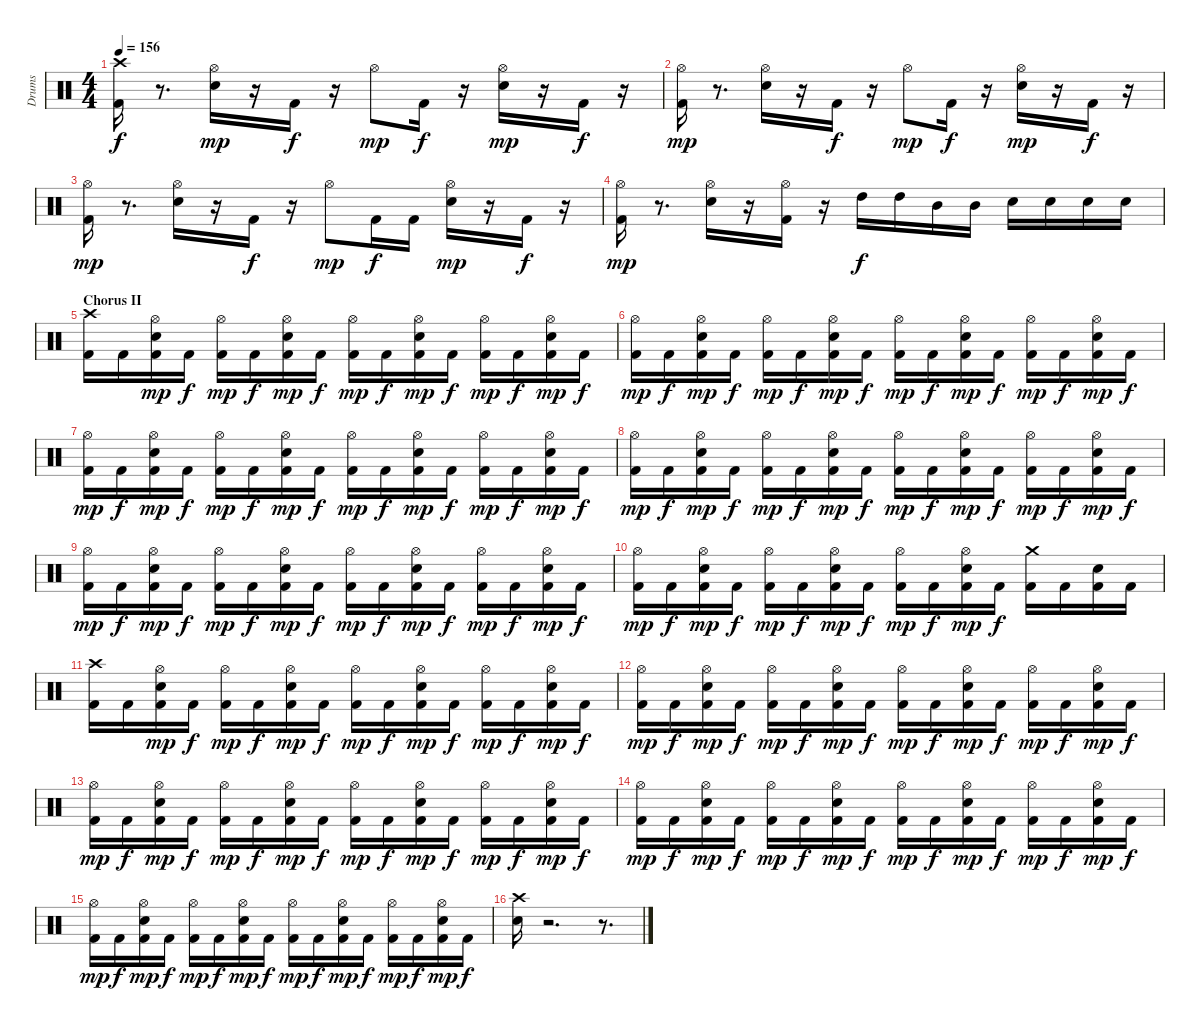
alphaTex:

\track ("Drums" "Drums") {instrument percussion}
\staff {score}
\articulation defaults
\ts (4 4)
\tempo 156
\clef neutral
\ks c
("Kick (hit) 2" "Crash high (hit)").16{dy f} r.8{d} ("Snare (hit) 2" "Hi-Hat (open)").16{dy mp} r.16 "Kick (hit) 2".16{dy f} r.16 "Hi-Hat (open)".8{dy mp} "Kick (hit) 2".16{dy f} r.16 ("Snare (hit) 2" "Hi-Hat (open)").16{dy mp} r.16 "Kick (hit) 2".16{dy f} r.16 |
("Kick (hit) 2" "Hi-Hat (open)").16{dy mp} r.8{d} ("Snare (hit) 2" "Hi-Hat (open)").16 r.16 "Kick (hit) 2".16{dy f} r.16 "Hi-Hat (open)".8{dy mp} "Kick (hit) 2".16{dy f} r.16 ("Snare (hit) 2" "Hi-Hat (open)").16{dy mp} r.16 "Kick (hit) 2".16{dy f} r.16 |
("Kick (hit) 2" "Hi-Hat (open)").16{dy mp} r.8{d} ("Snare (hit) 2" "Hi-Hat (open)").16 r.16 "Kick (hit) 2".16{dy f} r.16 "Hi-Hat (open)".8{dy mp} "Kick (hit) 2".16{dy f} "Kick (hit) 2".16 ("Snare (hit) 2" "Hi-Hat (open)").16{dy mp} r.16 "Kick (hit) 2".16{dy f} r.16 |
("Kick (hit) 2" "Hi-Hat (open)").16{dy mp} r.8{d} ("Snare (hit) 2" "Hi-Hat (open)").16 r.16 ("Kick (hit) 2" "Hi-Hat (open)").16 r.16 "High Tom (hit)".16{dy f} "High Tom (hit)".16 "Mid Tom (hit)".16 "Mid Tom (hit)".16 "Snare (hit) 2".16 "Snare (hit) 2".16 "Snare (hit) 2".16 "Snare (hit) 2".16 |
\section ("" "Chorus II")
("Kick (hit) 2" "Crash high (hit)").16 "Kick (hit) 2".16 ("Snare (hit) 2" "Kick (hit) 2" "Hi-Hat (open)").16{dy mp} "Kick (hit) 2".16{dy f} ("Kick (hit) 2" "Hi-Hat (open)").16{dy mp} "Kick (hit) 2".16{dy f} ("Snare (hit) 2" "Kick (hit) 2" "Hi-Hat (open)").16{dy mp} "Kick (hit) 2".16{dy f} ("Kick (hit) 2" "Hi-Hat (open)").16{dy mp} "Kick (hit) 2".16{dy f} ("Snare (hit) 2" "Kick (hit) 2" "Hi-Hat (open)").16{dy mp} "Kick (hit) 2".16{dy f} ("Kick (hit) 2" "Hi-Hat (open)").16{dy mp} "Kick (hit) 2".16{dy f} ("Snare (hit) 2" "Kick (hit) 2" "Hi-Hat (open)").16{dy mp} "Kick (hit) 2".16{dy f} |
("Kick (hit) 2" "Hi-Hat (open)").16{dy mp} "Kick (hit) 2".16{dy f} ("Snare (hit) 2" "Kick (hit) 2" "Hi-Hat (open)").16{dy mp} "Kick (hit) 2".16{dy f} ("Kick (hit) 2" "Hi-Hat (open)").16{dy mp} "Kick (hit) 2".16{dy f} ("Snare (hit) 2" "Kick (hit) 2" "Hi-Hat (open)").16{dy mp} "Kick (hit) 2".16{dy f} ("Kick (hit) 2" "Hi-Hat (open)").16{dy mp} "Kick (hit) 2".16{dy f} ("Snare (hit) 2" "Kick (hit) 2" "Hi-Hat (open)").16{dy mp} "Kick (hit) 2".16{dy f} ("Kick (hit) 2" "Hi-Hat (open)").16{dy mp} "Kick (hit) 2".16{dy f} ("Snare (hit) 2" "Kick (hit) 2" "Hi-Hat (open)").16{dy mp} "Kick (hit) 2".16{dy f} |
("Kick (hit) 2" "Hi-Hat (open)").16{dy mp} "Kick (hit) 2".16{dy f} ("Snare (hit) 2" "Kick (hit) 2" "Hi-Hat (open)").16{dy mp} "Kick (hit) 2".16{dy f} ("Kick (hit) 2" "Hi-Hat (open)").16{dy mp} "Kick (hit) 2".16{dy f} ("Snare (hit) 2" "Kick (hit) 2" "Hi-Hat (open)").16{dy mp} "Kick (hit) 2".16{dy f} ("Kick (hit) 2" "Hi-Hat (open)").16{dy mp} "Kick (hit) 2".16{dy f} ("Snare (hit) 2" "Kick (hit) 2" "Hi-Hat (open)").16{dy mp} "Kick (hit) 2".16{dy f} ("Kick (hit) 2" "Hi-Hat (open)").16{dy mp} "Kick (hit) 2".16{dy f} ("Snare (hit) 2" "Kick (hit) 2" "Hi-Hat (open)").16{dy mp} "Kick (hit) 2".16{dy f} |
("Kick (hit) 2" "Hi-Hat (open)").16{dy mp} "Kick (hit) 2".16{dy f} ("Snare (hit) 2" "Kick (hit) 2" "Hi-Hat (open)").16{dy mp} "Kick (hit) 2".16{dy f} ("Kick (hit) 2" "Hi-Hat (open)").16{dy mp} "Kick (hit) 2".16{dy f} ("Snare (hit) 2" "Kick (hit) 2" "Hi-Hat (open)").16{dy mp} "Kick (hit) 2".16{dy f} ("Kick (hit) 2" "Hi-Hat (open)").16{dy mp} "Kick (hit) 2".16{dy f} ("Snare (hit) 2" "Kick (hit) 2" "Hi-Hat (open)").16{dy mp} "Kick (hit) 2".16{dy f} ("Kick (hit) 2" "Hi-Hat (open)").16{dy mp} "Kick (hit) 2".16{dy f} ("Snare (hit) 2" "Kick (hit) 2" "Hi-Hat (open)").16{dy mp} "Kick (hit) 2".16{dy f} |
("Kick (hit) 2" "Hi-Hat (open)").16{dy mp} "Kick (hit) 2".16{dy f} ("Snare (hit) 2" "Kick (hit) 2" "Hi-Hat (open)").16{dy mp} "Kick (hit) 2".16{dy f} ("Kick (hit) 2" "Hi-Hat (open)").16{dy mp} "Kick (hit) 2".16{dy f} ("Snare (hit) 2" "Kick (hit) 2" "Hi-Hat (open)").16{dy mp} "Kick (hit) 2".16{dy f} ("Kick (hit) 2" "Hi-Hat (open)").16{dy mp} "Kick (hit) 2".16{dy f} ("Snare (hit) 2" "Kick (hit) 2" "Hi-Hat (open)").16{dy mp} "Kick (hit) 2".16{dy f} ("Kick (hit) 2" "Hi-Hat (open)").16{dy mp} "Kick (hit) 2".16{dy f} ("Snare (hit) 2" "Kick (hit) 2" "Hi-Hat (open)").16{dy mp} "Kick (hit) 2".16{dy f} |
("Kick (hit) 2" "Hi-Hat (open)").16{dy mp} "Kick (hit) 2".16{dy f} ("Snare (hit) 2" "Kick (hit) 2" "Hi-Hat (open)").16{dy mp} "Kick (hit) 2".16{dy f} ("Kick (hit) 2" "Hi-Hat (open)").16{dy mp} "Kick (hit) 2".16{dy f} ("Snare (hit) 2" "Kick (hit) 2" "Hi-Hat (open)").16{dy mp} "Kick (hit) 2".16{dy f} ("Kick (hit) 2" "Hi-Hat (open)").16{dy mp} "Kick (hit) 2".16{dy f} ("Snare (hit) 2" "Kick (hit) 2" "Hi-Hat (open)").16{dy mp} "Kick (hit) 2".16{dy f} ("Kick (hit) 2" "Crash medium (hit)").16 "Kick (hit) 2".16 ("Snare (hit) 2" "Kick (hit) 2").16 "Kick (hit) 2".16 |
("Kick (hit) 2" "Crash high (hit)").16 "Kick (hit) 2".16 ("Snare (hit) 2" "Kick (hit) 2" "Hi-Hat (open)").16{dy mp} "Kick (hit) 2".16{dy f} ("Kick (hit) 2" "Hi-Hat (open)").16{dy mp} "Kick (hit) 2".16{dy f} ("Snare (hit) 2" "Kick (hit) 2" "Hi-Hat (open)").16{dy mp} "Kick (hit) 2".16{dy f} ("Kick (hit) 2" "Hi-Hat (open)").16{dy mp} "Kick (hit) 2".16{dy f} ("Snare (hit) 2" "Kick (hit) 2" "Hi-Hat (open)").16{dy mp} "Kick (hit) 2".16{dy f} ("Kick (hit) 2" "Hi-Hat (open)").16{dy mp} "Kick (hit) 2".16{dy f} ("Snare (hit) 2" "Kick (hit) 2" "Hi-Hat (open)").16{dy mp} "Kick (hit) 2".16{dy f} |
("Kick (hit) 2" "Hi-Hat (open)").16{dy mp} "Kick (hit) 2".16{dy f} ("Snare (hit) 2" "Kick (hit) 2" "Hi-Hat (open)").16{dy mp} "Kick (hit) 2".16{dy f} ("Kick (hit) 2" "Hi-Hat (open)").16{dy mp} "Kick (hit) 2".16{dy f} ("Snare (hit) 2" "Kick (hit) 2" "Hi-Hat (open)").16{dy mp} "Kick (hit) 2".16{dy f} ("Kick (hit) 2" "Hi-Hat (open)").16{dy mp} "Kick (hit) 2".16{dy f} ("Snare (hit) 2" "Kick (hit) 2" "Hi-Hat (open)").16{dy mp} "Kick (hit) 2".16{dy f} ("Kick (hit) 2" "Hi-Hat (open)").16{dy mp} "Kick (hit) 2".16{dy f} ("Snare (hit) 2" "Kick (hit) 2" "Hi-Hat (open)").16{dy mp} "Kick (hit) 2".16{dy f} |
("Kick (hit) 2" "Hi-Hat (open)").16{dy mp} "Kick (hit) 2".16{dy f} ("Snare (hit) 2" "Kick (hit) 2" "Hi-Hat (open)").16{dy mp} "Kick (hit) 2".16{dy f} ("Kick (hit) 2" "Hi-Hat (open)").16{dy mp} "Kick (hit) 2".16{dy f} ("Snare (hit) 2" "Kick (hit) 2" "Hi-Hat (open)").16{dy mp} "Kick (hit) 2".16{dy f} ("Kick (hit) 2" "Hi-Hat (open)").16{dy mp} "Kick (hit) 2".16{dy f} ("Snare (hit) 2" "Kick (hit) 2" "Hi-Hat (open)").16{dy mp} "Kick (hit) 2".16{dy f} ("Kick (hit) 2" "Hi-Hat (open)").16{dy mp} "Kick (hit) 2".16{dy f} ("Snare (hit) 2" "Kick (hit) 2" "Hi-Hat (open)").16{dy mp} "Kick (hit) 2".16{dy f} |
("Kick (hit) 2" "Hi-Hat (open)").16{dy mp} "Kick (hit) 2".16{dy f} ("Snare (hit) 2" "Kick (hit) 2" "Hi-Hat (open)").16{dy mp} "Kick (hit) 2".16{dy f} ("Kick (hit) 2" "Hi-Hat (open)").16{dy mp} "Kick (hit) 2".16{dy f} ("Snare (hit) 2" "Kick (hit) 2" "Hi-Hat (open)").16{dy mp} "Kick (hit) 2".16{dy f} ("Kick (hit) 2" "Hi-Hat (open)").16{dy mp} "Kick (hit) 2".16{dy f} ("Snare (hit) 2" "Kick (hit) 2" "Hi-Hat (open)").16{dy mp} "Kick (hit) 2".16{dy f} ("Kick (hit) 2" "Hi-Hat (open)").16{dy mp} "Kick (hit) 2".16{dy f} ("Snare (hit) 2" "Kick (hit) 2" "Hi-Hat (open)").16{dy mp} "Kick (hit) 2".16{dy f} |
("Kick (hit) 2" "Hi-Hat (open)").16{dy mp} "Kick (hit) 2".16{dy f} ("Snare (hit) 2" "Kick (hit) 2" "Hi-Hat (open)").16{dy mp} "Kick (hit) 2".16{dy f} ("Kick (hit) 2" "Hi-Hat (open)").16{dy mp} "Kick (hit) 2".16{dy f} ("Snare (hit) 2" "Kick (hit) 2" "Hi-Hat (open)").16{dy mp} "Kick (hit) 2".16{dy f} ("Kick (hit) 2" "Hi-Hat (open)").16{dy mp} "Kick (hit) 2".16{dy f} ("Snare (hit) 2" "Kick (hit) 2" "Hi-Hat (open)").16{dy mp} "Kick (hit) 2".16{dy f} ("Kick (hit) 2" "Hi-Hat (open)").16{dy mp} "Kick (hit) 2".16{dy f} ("Snare (hit) 2" "Kick (hit) 2" "Hi-Hat (open)").16{dy mp} "Kick (hit) 2".16{dy f} |
("Snare (hit) 2" "Crash high (hit)").16 r.2{d} r.8{d}
